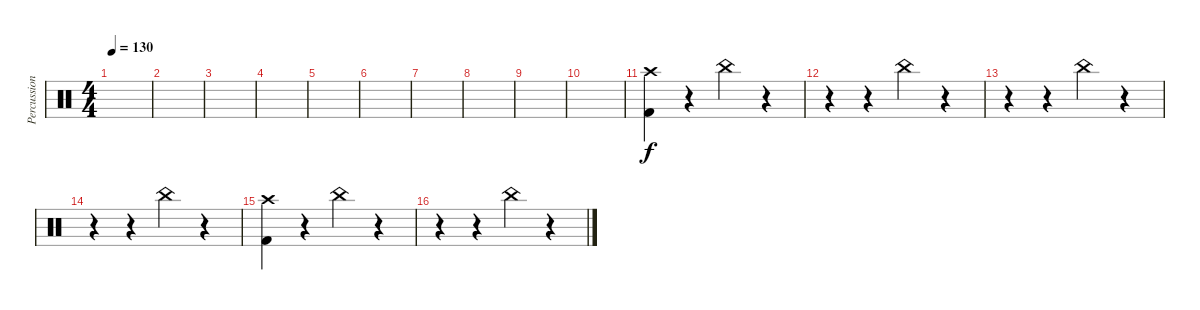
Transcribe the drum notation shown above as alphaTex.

\track ("Percussion" "Percussion") {instrument percussion}
\staff {score}
\articulation defaults
\ts (4 4)
\tempo 130
\clef neutral
\ks c
|
|
|
|
|
|
|
|
|
|
("Crash high (hit)" "Kick (hit) 2").4 r.4 "China (hit)".4 r.4 |
r.4 r.4 "China (hit)".4 r.4 |
r.4 r.4 "China (hit)".4 r.4 |
r.4 r.4 "China (hit)".4 r.4 |
("Crash high (hit)" "Kick (hit) 2").4 r.4 "China (hit)".4 r.4 |
r.4 r.4 "China (hit)".4 r.4
